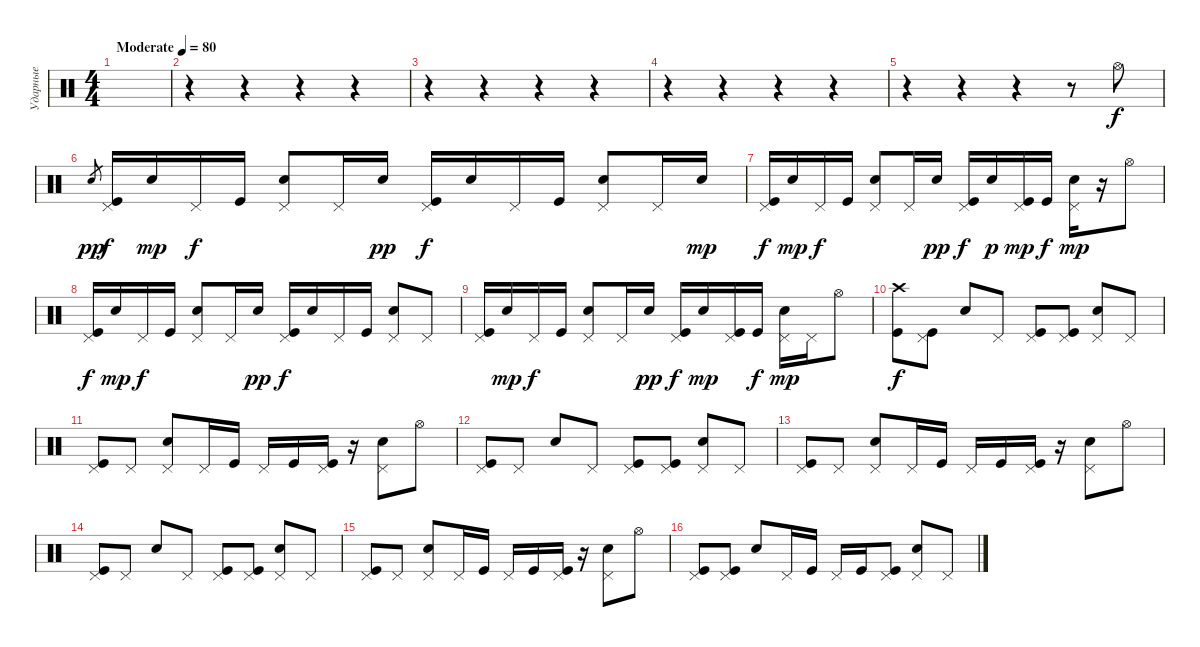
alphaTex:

\track ("Ударные" "Ударные") {instrument percussion}
\staff {score}
\articulation defaults
\ts (4 4)
\tempo (80 "Moderate")
\clef neutral
\ks c
|
r.4 r.4 r.4 r.4 |
r.4 r.4 r.4 r.4 |
r.4 r.4 r.4 r.4 |
r.4 r.4 r.4 r.8 "Hi-Hat (open)".8 |
"Snare (hit) 2"{h x}.8{gr dy pp} ("Pedal Hi-Hat (hit)" "Kick (hit)").16{dy f} "Snare (hit) 2".16{dy mp} "Pedal Hi-Hat (hit)".16{dy f} "Kick (hit)".16 ("Pedal Hi-Hat (hit)" "Snare (hit) 2").8 "Pedal Hi-Hat (hit)".16 "Snare (hit) 2".16{dy pp} ("Pedal Hi-Hat (hit)" "Kick (hit)").16{dy f} "Snare (hit) 2".16 "Pedal Hi-Hat (hit)".16 "Kick (hit)".16 ("Pedal Hi-Hat (hit)" "Snare (hit) 2").8 "Pedal Hi-Hat (hit)".16 "Snare (hit) 2".16{dy mp} |
("Pedal Hi-Hat (hit)" "Kick (hit)").16{dy f} "Snare (hit) 2".16{dy mp} "Pedal Hi-Hat (hit)".16{dy f} "Kick (hit)".16 ("Pedal Hi-Hat (hit)" "Snare (hit) 2").8 "Pedal Hi-Hat (hit)".16 "Snare (hit) 2".16{dy pp} ("Pedal Hi-Hat (hit)" "Kick (hit)").16{dy f} "Snare (hit) 2".16{dy p} ("Pedal Hi-Hat (hit)" "Kick (hit)").16{dy mp} "Kick (hit)".16{dy f} ("Pedal Hi-Hat (hit)" "Snare (hit) 2").16{dy mp} r.16 "Hi-Hat (open)".8 |
("Pedal Hi-Hat (hit)" "Kick (hit)").16{dy f} "Snare (hit) 2".16{dy mp} "Pedal Hi-Hat (hit)".16{dy f} "Kick (hit)".16 ("Pedal Hi-Hat (hit)" "Snare (hit) 2").8 "Pedal Hi-Hat (hit)".16 "Snare (hit) 2".16{dy pp} ("Pedal Hi-Hat (hit)" "Kick (hit)").16{dy f} "Snare (hit) 2".16 "Pedal Hi-Hat (hit)".16 "Kick (hit)".16 ("Pedal Hi-Hat (hit)" "Snare (hit) 2").8 "Pedal Hi-Hat (hit)".8 |
("Pedal Hi-Hat (hit)" "Kick (hit)").16 "Snare (hit) 2".16{dy mp} "Pedal Hi-Hat (hit)".16{dy f} "Kick (hit)".16 ("Pedal Hi-Hat (hit)" "Snare (hit) 2").8 "Pedal Hi-Hat (hit)".16 "Snare (hit) 2".16{dy pp} ("Pedal Hi-Hat (hit)" "Kick (hit)").16{dy f} "Snare (hit) 2".16{dy mp} ("Pedal Hi-Hat (hit)" "Kick (hit)").16 "Kick (hit)".16{dy f} ("Pedal Hi-Hat (hit)" "Snare (hit) 2").16{dy mp} "Pedal Hi-Hat (hit)".16 "Hi-Hat (open)".8 |
("Crash high (hit)" "Kick (hit)").8{dy f} ("Pedal Hi-Hat (hit)" "Kick (hit)").8 "Snare (hit) 2".8 "Pedal Hi-Hat (hit)".8 ("Pedal Hi-Hat (hit)" "Kick (hit)").8 ("Pedal Hi-Hat (hit)" "Kick (hit)").8 ("Pedal Hi-Hat (hit)" "Snare (hit) 2").8 "Pedal Hi-Hat (hit)".8 |
("Pedal Hi-Hat (hit)" "Kick (hit)").8 "Pedal Hi-Hat (hit)".8 ("Pedal Hi-Hat (hit)" "Snare (hit) 2").8 "Pedal Hi-Hat (hit)".16 "Kick (hit)".16 "Pedal Hi-Hat (hit)".16 "Kick (hit)".16 ("Pedal Hi-Hat (hit)" "Kick (hit)").16 r.16 ("Pedal Hi-Hat (hit)" "Snare (hit) 2").8 "Hi-Hat (open)".8 |
("Pedal Hi-Hat (hit)" "Kick (hit)").8 "Pedal Hi-Hat (hit)".8 "Snare (hit) 2".8 "Pedal Hi-Hat (hit)".8 ("Pedal Hi-Hat (hit)" "Kick (hit)").8 ("Pedal Hi-Hat (hit)" "Kick (hit)").8 ("Pedal Hi-Hat (hit)" "Snare (hit) 2").8 "Pedal Hi-Hat (hit)".8 |
("Pedal Hi-Hat (hit)" "Kick (hit)").8 "Pedal Hi-Hat (hit)".8 ("Pedal Hi-Hat (hit)" "Snare (hit) 2").8 "Pedal Hi-Hat (hit)".16 "Kick (hit)".16 "Pedal Hi-Hat (hit)".16 "Kick (hit)".16 ("Pedal Hi-Hat (hit)" "Kick (hit)").16 r.16 ("Pedal Hi-Hat (hit)" "Snare (hit) 2").8 "Hi-Hat (open)".8 |
("Pedal Hi-Hat (hit)" "Kick (hit)").8 "Pedal Hi-Hat (hit)".8 "Snare (hit) 2".8 "Pedal Hi-Hat (hit)".8 ("Pedal Hi-Hat (hit)" "Kick (hit)").8 ("Pedal Hi-Hat (hit)" "Kick (hit)").8 ("Pedal Hi-Hat (hit)" "Snare (hit) 2").8 "Pedal Hi-Hat (hit)".8 |
("Pedal Hi-Hat (hit)" "Kick (hit)").8 "Pedal Hi-Hat (hit)".8 ("Pedal Hi-Hat (hit)" "Snare (hit) 2").8 "Pedal Hi-Hat (hit)".16 "Kick (hit)".16 "Pedal Hi-Hat (hit)".16 "Kick (hit)".16 ("Pedal Hi-Hat (hit)" "Kick (hit)").16 r.16 ("Pedal Hi-Hat (hit)" "Snare (hit) 2").8 "Hi-Hat (open)".8 |
("Pedal Hi-Hat (hit)" "Kick (hit)").8 ("Pedal Hi-Hat (hit)" "Kick (hit)").8 "Snare (hit) 2".8 "Pedal Hi-Hat (hit)".16 "Kick (hit)".16 "Pedal Hi-Hat (hit)".16 "Kick (hit)".16 ("Pedal Hi-Hat (hit)" "Kick (hit)").8 ("Pedal Hi-Hat (hit)" "Snare (hit) 2").8 "Pedal Hi-Hat (hit)".8
